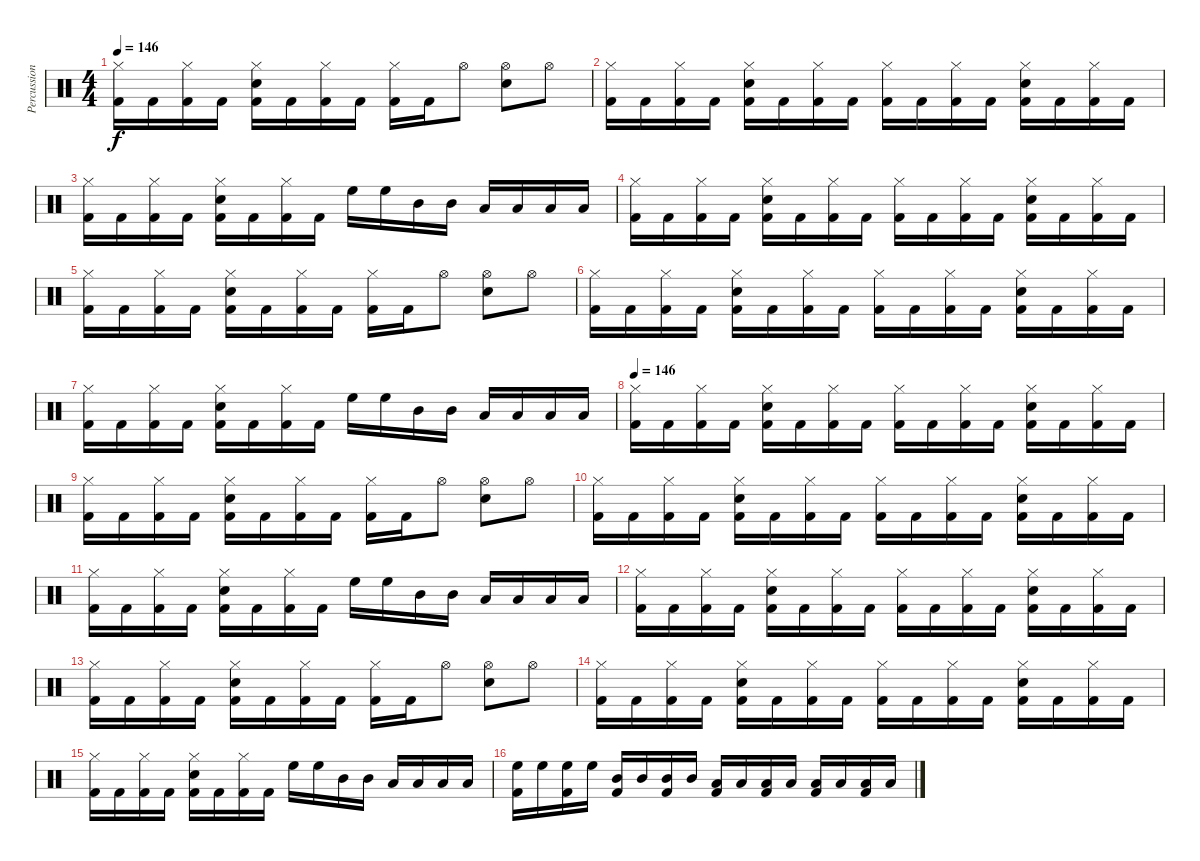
\track ("Percussion" "Percussion") {instrument percussion}
\staff {score}
\articulation defaults
\ts (4 4)
\tempo 146
\clef neutral
\ks c
("Hi-Hat (closed)" "Kick (hit) 2").16{dy f} "Kick (hit) 2".16 ("Hi-Hat (closed)" "Kick (hit) 2").16 "Kick (hit) 2".16 ("Hi-Hat (closed)" "Snare (hit) 2" "Kick (hit) 2").16 "Kick (hit) 2".16 ("Hi-Hat (closed)" "Kick (hit) 2").16 "Kick (hit) 2".16 ("Hi-Hat (closed)" "Kick (hit) 2").16 "Kick (hit) 2".16 "Hi-Hat (open)".8 ("Hi-Hat (open)" "Snare (hit) 2").8 "Hi-Hat (open)".8 |
("Hi-Hat (closed)" "Kick (hit) 2").16 "Kick (hit) 2".16 ("Hi-Hat (closed)" "Kick (hit) 2").16 "Kick (hit) 2".16 ("Hi-Hat (closed)" "Snare (hit) 2" "Kick (hit) 2").16 "Kick (hit) 2".16 ("Hi-Hat (closed)" "Kick (hit) 2").16 "Kick (hit) 2".16 ("Hi-Hat (closed)" "Kick (hit) 2").16 "Kick (hit) 2".16 ("Hi-Hat (closed)" "Kick (hit) 2").16 "Kick (hit) 2".16 ("Hi-Hat (closed)" "Snare (hit) 2" "Kick (hit) 2").16 "Kick (hit) 2".16 ("Hi-Hat (closed)" "Kick (hit) 2").16 "Kick (hit) 2".16 |
("Hi-Hat (closed)" "Kick (hit) 2").16 "Kick (hit) 2".16 ("Hi-Hat (closed)" "Kick (hit) 2").16 "Kick (hit) 2".16 ("Hi-Hat (closed)" "Snare (hit) 2" "Kick (hit) 2").16 "Kick (hit) 2".16 ("Hi-Hat (closed)" "Kick (hit) 2").16 "Kick (hit) 2".16 "High Floor Tom (hit)".16 "High Floor Tom (hit)".16 "Mid Tom (hit)".16 "Mid Tom (hit)".16 "Low Tom (hit)".16 "Low Tom (hit)".16 "Low Floor Tom (hit)".16 "Low Floor Tom (hit)".16 |
("Hi-Hat (closed)" "Kick (hit) 2").16 "Kick (hit) 2".16 ("Hi-Hat (closed)" "Kick (hit) 2").16 "Kick (hit) 2".16 ("Hi-Hat (closed)" "Snare (hit) 2" "Kick (hit) 2").16 "Kick (hit) 2".16 ("Hi-Hat (closed)" "Kick (hit) 2").16 "Kick (hit) 2".16 ("Hi-Hat (closed)" "Kick (hit) 2").16 "Kick (hit) 2".16 ("Hi-Hat (closed)" "Kick (hit) 2").16 "Kick (hit) 2".16 ("Hi-Hat (closed)" "Snare (hit) 2" "Kick (hit) 2").16 "Kick (hit) 2".16 ("Hi-Hat (closed)" "Kick (hit) 2").16 "Kick (hit) 2".16 |
("Hi-Hat (closed)" "Kick (hit) 2").16 "Kick (hit) 2".16 ("Hi-Hat (closed)" "Kick (hit) 2").16 "Kick (hit) 2".16 ("Hi-Hat (closed)" "Snare (hit) 2" "Kick (hit) 2").16 "Kick (hit) 2".16 ("Hi-Hat (closed)" "Kick (hit) 2").16 "Kick (hit) 2".16 ("Hi-Hat (closed)" "Kick (hit) 2").16 "Kick (hit) 2".16 "Hi-Hat (open)".8 ("Hi-Hat (open)" "Snare (hit) 2").8 "Hi-Hat (open)".8 |
("Hi-Hat (closed)" "Kick (hit) 2").16 "Kick (hit) 2".16 ("Hi-Hat (closed)" "Kick (hit) 2").16 "Kick (hit) 2".16 ("Hi-Hat (closed)" "Snare (hit) 2" "Kick (hit) 2").16 "Kick (hit) 2".16 ("Hi-Hat (closed)" "Kick (hit) 2").16 "Kick (hit) 2".16 ("Hi-Hat (closed)" "Kick (hit) 2").16 "Kick (hit) 2".16 ("Hi-Hat (closed)" "Kick (hit) 2").16 "Kick (hit) 2".16 ("Hi-Hat (closed)" "Snare (hit) 2" "Kick (hit) 2").16 "Kick (hit) 2".16 ("Hi-Hat (closed)" "Kick (hit) 2").16 "Kick (hit) 2".16 |
("Hi-Hat (closed)" "Kick (hit) 2").16 "Kick (hit) 2".16 ("Hi-Hat (closed)" "Kick (hit) 2").16 "Kick (hit) 2".16 ("Hi-Hat (closed)" "Snare (hit) 2" "Kick (hit) 2").16 "Kick (hit) 2".16 ("Hi-Hat (closed)" "Kick (hit) 2").16 "Kick (hit) 2".16 "High Floor Tom (hit)".16 "High Floor Tom (hit)".16 "Mid Tom (hit)".16 "Mid Tom (hit)".16 "Low Tom (hit)".16 "Low Tom (hit)".16 "Low Floor Tom (hit)".16 "Low Floor Tom (hit)".16 |
\tempo 146
("Hi-Hat (closed)" "Kick (hit) 2").16 "Kick (hit) 2".16 ("Hi-Hat (closed)" "Kick (hit) 2").16 "Kick (hit) 2".16 ("Hi-Hat (closed)" "Snare (hit) 2" "Kick (hit) 2").16 "Kick (hit) 2".16 ("Hi-Hat (closed)" "Kick (hit) 2").16 "Kick (hit) 2".16 ("Hi-Hat (closed)" "Kick (hit) 2").16 "Kick (hit) 2".16 ("Hi-Hat (closed)" "Kick (hit) 2").16 "Kick (hit) 2".16 ("Hi-Hat (closed)" "Snare (hit) 2" "Kick (hit) 2").16 "Kick (hit) 2".16 ("Hi-Hat (closed)" "Kick (hit) 2").16 "Kick (hit) 2".16 |
("Hi-Hat (closed)" "Kick (hit) 2").16 "Kick (hit) 2".16 ("Hi-Hat (closed)" "Kick (hit) 2").16 "Kick (hit) 2".16 ("Hi-Hat (closed)" "Snare (hit) 2" "Kick (hit) 2").16 "Kick (hit) 2".16 ("Hi-Hat (closed)" "Kick (hit) 2").16 "Kick (hit) 2".16 ("Hi-Hat (closed)" "Kick (hit) 2").16 "Kick (hit) 2".16 "Hi-Hat (open)".8 ("Hi-Hat (open)" "Snare (hit) 2").8 "Hi-Hat (open)".8 |
("Hi-Hat (closed)" "Kick (hit) 2").16 "Kick (hit) 2".16 ("Hi-Hat (closed)" "Kick (hit) 2").16 "Kick (hit) 2".16 ("Hi-Hat (closed)" "Snare (hit) 2" "Kick (hit) 2").16 "Kick (hit) 2".16 ("Hi-Hat (closed)" "Kick (hit) 2").16 "Kick (hit) 2".16 ("Hi-Hat (closed)" "Kick (hit) 2").16 "Kick (hit) 2".16 ("Hi-Hat (closed)" "Kick (hit) 2").16 "Kick (hit) 2".16 ("Hi-Hat (closed)" "Snare (hit) 2" "Kick (hit) 2").16 "Kick (hit) 2".16 ("Hi-Hat (closed)" "Kick (hit) 2").16 "Kick (hit) 2".16 |
("Hi-Hat (closed)" "Kick (hit) 2").16 "Kick (hit) 2".16 ("Hi-Hat (closed)" "Kick (hit) 2").16 "Kick (hit) 2".16 ("Hi-Hat (closed)" "Snare (hit) 2" "Kick (hit) 2").16 "Kick (hit) 2".16 ("Hi-Hat (closed)" "Kick (hit) 2").16 "Kick (hit) 2".16 "High Floor Tom (hit)".16 "High Floor Tom (hit)".16 "Mid Tom (hit)".16 "Mid Tom (hit)".16 "Low Tom (hit)".16 "Low Tom (hit)".16 "Low Floor Tom (hit)".16 "Low Floor Tom (hit)".16 |
("Hi-Hat (closed)" "Kick (hit) 2").16 "Kick (hit) 2".16 ("Hi-Hat (closed)" "Kick (hit) 2").16 "Kick (hit) 2".16 ("Hi-Hat (closed)" "Snare (hit) 2" "Kick (hit) 2").16 "Kick (hit) 2".16 ("Hi-Hat (closed)" "Kick (hit) 2").16 "Kick (hit) 2".16 ("Hi-Hat (closed)" "Kick (hit) 2").16 "Kick (hit) 2".16 ("Hi-Hat (closed)" "Kick (hit) 2").16 "Kick (hit) 2".16 ("Hi-Hat (closed)" "Snare (hit) 2" "Kick (hit) 2").16 "Kick (hit) 2".16 ("Hi-Hat (closed)" "Kick (hit) 2").16 "Kick (hit) 2".16 |
("Hi-Hat (closed)" "Kick (hit) 2").16 "Kick (hit) 2".16 ("Hi-Hat (closed)" "Kick (hit) 2").16 "Kick (hit) 2".16 ("Hi-Hat (closed)" "Snare (hit) 2" "Kick (hit) 2").16 "Kick (hit) 2".16 ("Hi-Hat (closed)" "Kick (hit) 2").16 "Kick (hit) 2".16 ("Hi-Hat (closed)" "Kick (hit) 2").16 "Kick (hit) 2".16 "Hi-Hat (open)".8 ("Hi-Hat (open)" "Snare (hit) 2").8 "Hi-Hat (open)".8 |
("Hi-Hat (closed)" "Kick (hit) 2").16 "Kick (hit) 2".16 ("Hi-Hat (closed)" "Kick (hit) 2").16 "Kick (hit) 2".16 ("Hi-Hat (closed)" "Snare (hit) 2" "Kick (hit) 2").16 "Kick (hit) 2".16 ("Hi-Hat (closed)" "Kick (hit) 2").16 "Kick (hit) 2".16 ("Hi-Hat (closed)" "Kick (hit) 2").16 "Kick (hit) 2".16 ("Hi-Hat (closed)" "Kick (hit) 2").16 "Kick (hit) 2".16 ("Hi-Hat (closed)" "Snare (hit) 2" "Kick (hit) 2").16 "Kick (hit) 2".16 ("Hi-Hat (closed)" "Kick (hit) 2").16 "Kick (hit) 2".16 |
("Hi-Hat (closed)" "Kick (hit) 2").16 "Kick (hit) 2".16 ("Hi-Hat (closed)" "Kick (hit) 2").16 "Kick (hit) 2".16 ("Hi-Hat (closed)" "Snare (hit) 2" "Kick (hit) 2").16 "Kick (hit) 2".16 ("Hi-Hat (closed)" "Kick (hit) 2").16 "Kick (hit) 2".16 "High Floor Tom (hit)".16 "High Floor Tom (hit)".16 "Mid Tom (hit)".16 "Mid Tom (hit)".16 "Low Tom (hit)".16 "Low Tom (hit)".16 "Low Floor Tom (hit)".16 "Low Floor Tom (hit)".16 |
("High Floor Tom (hit)" "Kick (hit) 2").16 "High Floor Tom (hit)".16 ("High Floor Tom (hit)" "Kick (hit) 2").16 "High Floor Tom (hit)".16 ("Mid Tom (hit)" "Kick (hit) 2").16 "Mid Tom (hit)".16 ("Mid Tom (hit)" "Kick (hit) 2").16 "Mid Tom (hit)".16 ("Low Tom (hit)" "Kick (hit) 2").16 "Low Tom (hit)".16 ("Low Tom (hit)" "Kick (hit) 2").16 "Low Tom (hit)".16 ("Low Floor Tom (hit)" "Kick (hit) 2").16 "Low Floor Tom (hit)".16 ("Low Floor Tom (hit)" "Kick (hit) 2").16 "Low Floor Tom (hit)".16
